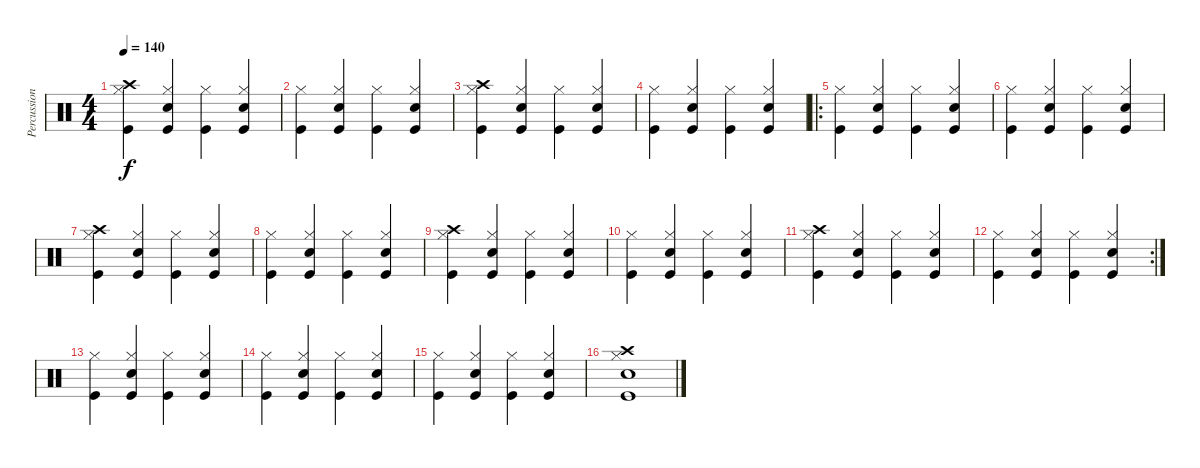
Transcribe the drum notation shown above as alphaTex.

\track ("Percussion" "Percussion") {instrument percussion}
\staff {score}
\articulation defaults
\ts (4 4)
\tempo 140
\clef neutral
\ks c
("Crash high (hit)" "Kick (hit)" "Hi-Hat (closed)").4{dy f} ("Kick (hit)" "Electric Snare (hit)" "Hi-Hat (closed)").4 ("Kick (hit)" "Hi-Hat (closed)").4 ("Kick (hit)" "Electric Snare (hit)" "Hi-Hat (closed)").4 |
("Kick (hit)" "Hi-Hat (closed)").4 ("Kick (hit)" "Electric Snare (hit)" "Hi-Hat (closed)").4 ("Kick (hit)" "Hi-Hat (closed)").4 ("Kick (hit)" "Electric Snare (hit)" "Hi-Hat (closed)").4 |
("Kick (hit)" "Crash high (hit)" "Hi-Hat (closed)").4 ("Kick (hit)" "Electric Snare (hit)" "Hi-Hat (closed)").4 ("Kick (hit)" "Hi-Hat (closed)").4 ("Kick (hit)" "Electric Snare (hit)" "Hi-Hat (closed)").4 |
("Kick (hit)" "Hi-Hat (closed)").4 ("Kick (hit)" "Electric Snare (hit)" "Hi-Hat (closed)").4 ("Kick (hit)" "Hi-Hat (closed)").4 ("Kick (hit)" "Electric Snare (hit)" "Hi-Hat (closed)").4 |
\ro
("Kick (hit)" "Hi-Hat (closed)").4 ("Kick (hit)" "Electric Snare (hit)" "Hi-Hat (closed)").4 ("Kick (hit)" "Hi-Hat (closed)").4 ("Kick (hit)" "Electric Snare (hit)" "Hi-Hat (closed)").4 |
("Kick (hit)" "Hi-Hat (closed)").4 ("Kick (hit)" "Electric Snare (hit)" "Hi-Hat (closed)").4 ("Kick (hit)" "Hi-Hat (closed)").4 ("Kick (hit)" "Electric Snare (hit)" "Hi-Hat (closed)").4 |
("Crash high (hit)" "Kick (hit)" "Hi-Hat (closed)").4 ("Kick (hit)" "Electric Snare (hit)" "Hi-Hat (closed)").4 ("Kick (hit)" "Hi-Hat (closed)").4 ("Kick (hit)" "Electric Snare (hit)" "Hi-Hat (closed)").4 |
("Kick (hit)" "Hi-Hat (closed)").4 ("Kick (hit)" "Electric Snare (hit)" "Hi-Hat (closed)").4 ("Kick (hit)" "Hi-Hat (closed)").4 ("Kick (hit)" "Electric Snare (hit)" "Hi-Hat (closed)").4 |
("Crash high (hit)" "Kick (hit)" "Hi-Hat (closed)").4 ("Kick (hit)" "Electric Snare (hit)" "Hi-Hat (closed)").4 ("Kick (hit)" "Hi-Hat (closed)").4 ("Kick (hit)" "Electric Snare (hit)" "Hi-Hat (closed)").4 |
("Kick (hit)" "Hi-Hat (closed)").4 ("Kick (hit)" "Electric Snare (hit)" "Hi-Hat (closed)").4 ("Kick (hit)" "Hi-Hat (closed)").4 ("Kick (hit)" "Electric Snare (hit)" "Hi-Hat (closed)").4 |
("Kick (hit)" "Crash high (hit)" "Hi-Hat (closed)").4 ("Kick (hit)" "Electric Snare (hit)" "Hi-Hat (closed)").4 ("Kick (hit)" "Hi-Hat (closed)").4 ("Kick (hit)" "Electric Snare (hit)" "Hi-Hat (closed)").4 |
\rc 2
("Kick (hit)" "Hi-Hat (closed)").4 ("Kick (hit)" "Electric Snare (hit)" "Hi-Hat (closed)").4 ("Kick (hit)" "Hi-Hat (closed)").4 ("Kick (hit)" "Electric Snare (hit)" "Hi-Hat (closed)").4 |
("Kick (hit)" "Hi-Hat (closed)").4 ("Kick (hit)" "Electric Snare (hit)" "Hi-Hat (closed)").4 ("Kick (hit)" "Hi-Hat (closed)").4 ("Kick (hit)" "Electric Snare (hit)" "Hi-Hat (closed)").4 |
("Kick (hit)" "Hi-Hat (closed)").4 ("Kick (hit)" "Electric Snare (hit)" "Hi-Hat (closed)").4 ("Kick (hit)" "Hi-Hat (closed)").4 ("Kick (hit)" "Electric Snare (hit)" "Hi-Hat (closed)").4 |
("Kick (hit)" "Hi-Hat (closed)").4 ("Kick (hit)" "Electric Snare (hit)" "Hi-Hat (closed)").4 ("Kick (hit)" "Hi-Hat (closed)").4 ("Kick (hit)" "Electric Snare (hit)" "Hi-Hat (closed)").4 |
("Crash high (hit)" "Kick (hit)" "Electric Snare (hit)" "Hi-Hat (closed)").1
